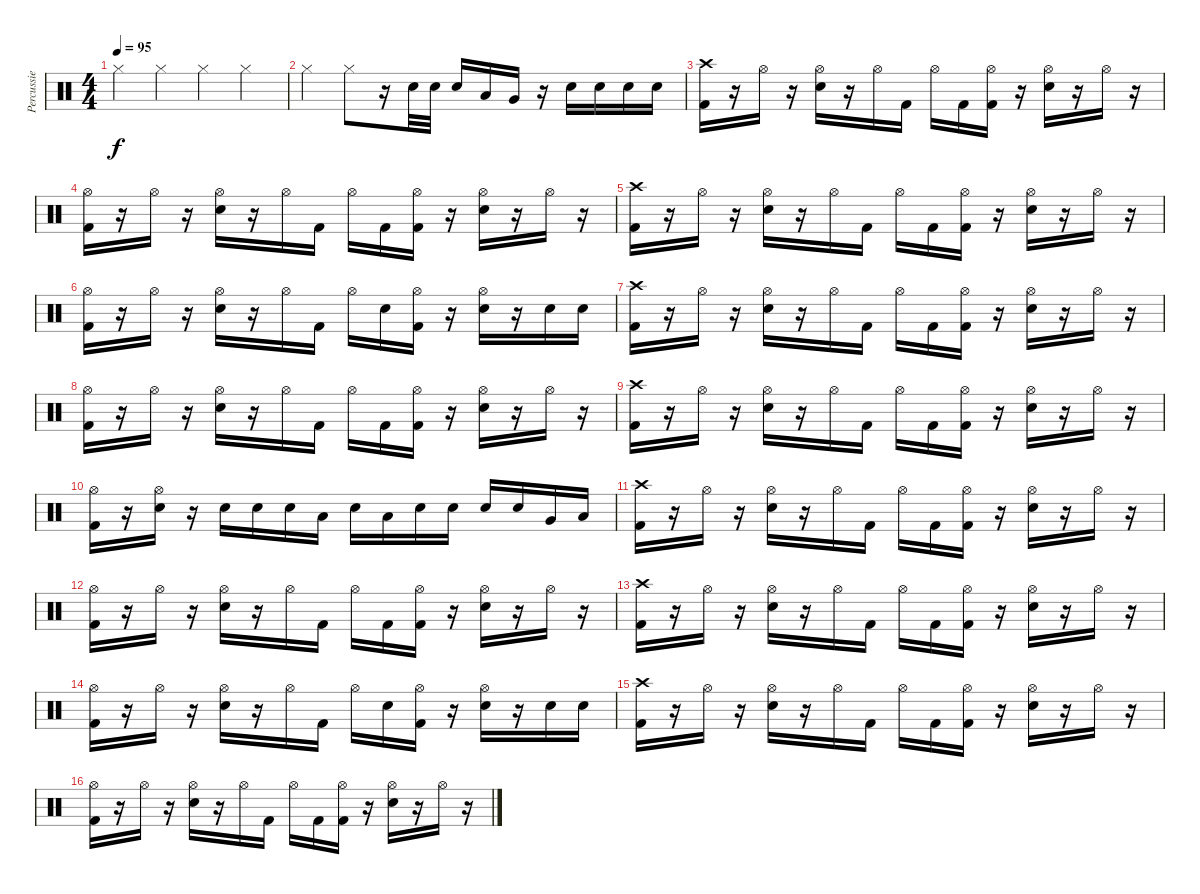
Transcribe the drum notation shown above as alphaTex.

\track ("Percussie" "Percussie") {instrument percussion}
\staff {score}
\articulation defaults
\ts (4 4)
\tempo 95
\clef neutral
\ks c "Hi-Hat (closed)".4{dy f} "Hi-Hat (closed)".4 "Hi-Hat (closed)".4 "Hi-Hat (closed)".4
|
"Hi-Hat (closed)".4 "Hi-Hat (closed)".8 r.16 "Electric Snare (hit)".32 "Electric Snare (hit)".32 "Electric Snare (hit)".16 "Low Tom (hit)".16 "Very Low Tom (hit)".16 r.16 "Electric Snare (hit)".16 "Electric Snare (hit)".16 "Electric Snare (hit)".16 "Electric Snare (hit)".16 |
("Crash high (hit)" "Kick (hit) 2").16 r.16 "Hi-Hat (open)".16 r.16 ("Hi-Hat (open)" "Electric Snare (hit)").16 r.16 "Hi-Hat (open)".16 "Kick (hit) 2".16 "Hi-Hat (open)".16 "Kick (hit) 2".16 ("Hi-Hat (open)" "Kick (hit) 2").16 r.16 ("Hi-Hat (open)" "Electric Snare (hit)").16 r.16 "Hi-Hat (open)".16 r.16 |
("Hi-Hat (open)" "Kick (hit) 2").16 r.16 "Hi-Hat (open)".16 r.16 ("Hi-Hat (open)" "Electric Snare (hit)").16 r.16 "Hi-Hat (open)".16 "Kick (hit) 2".16 "Hi-Hat (open)".16 "Kick (hit) 2".16 ("Hi-Hat (open)" "Kick (hit) 2").16 r.16 ("Hi-Hat (open)" "Electric Snare (hit)").16 r.16 "Hi-Hat (open)".16 r.16 |
("Crash high (hit)" "Kick (hit) 2").16 r.16 "Hi-Hat (open)".16 r.16 ("Hi-Hat (open)" "Electric Snare (hit)").16 r.16 "Hi-Hat (open)".16 "Kick (hit) 2".16 "Hi-Hat (open)".16 "Kick (hit) 2".16 ("Hi-Hat (open)" "Kick (hit) 2").16 r.16 ("Hi-Hat (open)" "Electric Snare (hit)").16 r.16 "Hi-Hat (open)".16 r.16 |
("Hi-Hat (open)" "Kick (hit) 2").16 r.16 "Hi-Hat (open)".16 r.16 ("Hi-Hat (open)" "Electric Snare (hit)").16 r.16 "Hi-Hat (open)".16 "Kick (hit) 2".16 "Hi-Hat (open)".16 "Electric Snare (hit)".16 ("Hi-Hat (open)" "Kick (hit) 2").16 r.16 ("Hi-Hat (open)" "Electric Snare (hit)").16 r.16 "Electric Snare (hit)".16 "Electric Snare (hit)".16 |
("Crash high (hit)" "Kick (hit) 2").16 r.16 "Hi-Hat (open)".16 r.16 ("Hi-Hat (open)" "Electric Snare (hit)").16 r.16 "Hi-Hat (open)".16 "Kick (hit) 2".16 "Hi-Hat (open)".16 "Kick (hit) 2".16 ("Hi-Hat (open)" "Kick (hit) 2").16 r.16 ("Hi-Hat (open)" "Electric Snare (hit)").16 r.16 "Hi-Hat (open)".16 r.16 |
("Hi-Hat (open)" "Kick (hit) 2").16 r.16 "Hi-Hat (open)".16 r.16 ("Hi-Hat (open)" "Electric Snare (hit)").16 r.16 "Hi-Hat (open)".16 "Kick (hit) 2".16 "Hi-Hat (open)".16 "Kick (hit) 2".16 ("Hi-Hat (open)" "Kick (hit) 2").16 r.16 ("Hi-Hat (open)" "Electric Snare (hit)").16 r.16 "Hi-Hat (open)".16 r.16 |
("Crash high (hit)" "Kick (hit) 2").16 r.16 "Hi-Hat (open)".16 r.16 ("Hi-Hat (open)" "Electric Snare (hit)").16 r.16 "Hi-Hat (open)".16 "Kick (hit) 2".16 "Hi-Hat (open)".16 "Kick (hit) 2".16 ("Hi-Hat (open)" "Kick (hit) 2").16 r.16 ("Hi-Hat (open)" "Electric Snare (hit)").16 r.16 "Hi-Hat (open)".16 r.16 |
("Hi-Hat (open)" "Kick (hit) 2").16 r.16 ("Hi-Hat (open)" "Electric Snare (hit)").16 r.16 "Electric Snare (hit)".16 "Electric Snare (hit)".16 "Electric Snare (hit)".16 "Low Tom (hit)".16 "Electric Snare (hit)".16 "Low Tom (hit)".16 "Electric Snare (hit)".16 "Electric Snare (hit)".16 "Electric Snare (hit)".16 "Electric Snare (hit)".16 "Very Low Tom (hit)".16 "Low Tom (hit)".16 |
("Crash high (hit)" "Kick (hit) 2").16 r.16 "Hi-Hat (open)".16 r.16 ("Hi-Hat (open)" "Electric Snare (hit)").16 r.16 "Hi-Hat (open)".16 "Kick (hit) 2".16 "Hi-Hat (open)".16 "Kick (hit) 2".16 ("Hi-Hat (open)" "Kick (hit) 2").16 r.16 ("Hi-Hat (open)" "Electric Snare (hit)").16 r.16 "Hi-Hat (open)".16 r.16 |
("Hi-Hat (open)" "Kick (hit) 2").16 r.16 "Hi-Hat (open)".16 r.16 ("Hi-Hat (open)" "Electric Snare (hit)").16 r.16 "Hi-Hat (open)".16 "Kick (hit) 2".16 "Hi-Hat (open)".16 "Kick (hit) 2".16 ("Hi-Hat (open)" "Kick (hit) 2").16 r.16 ("Hi-Hat (open)" "Electric Snare (hit)").16 r.16 "Hi-Hat (open)".16 r.16 |
("Crash high (hit)" "Kick (hit) 2").16 r.16 "Hi-Hat (open)".16 r.16 ("Hi-Hat (open)" "Electric Snare (hit)").16 r.16 "Hi-Hat (open)".16 "Kick (hit) 2".16 "Hi-Hat (open)".16 "Kick (hit) 2".16 ("Hi-Hat (open)" "Kick (hit) 2").16 r.16 ("Hi-Hat (open)" "Electric Snare (hit)").16 r.16 "Hi-Hat (open)".16 r.16 |
("Hi-Hat (open)" "Kick (hit) 2").16 r.16 "Hi-Hat (open)".16 r.16 ("Hi-Hat (open)" "Electric Snare (hit)").16 r.16 "Hi-Hat (open)".16 "Kick (hit) 2".16 "Hi-Hat (open)".16 "Electric Snare (hit)".16 ("Hi-Hat (open)" "Kick (hit) 2").16 r.16 ("Hi-Hat (open)" "Electric Snare (hit)").16 r.16 "Electric Snare (hit)".16 "Electric Snare (hit)".16 |
("Crash high (hit)" "Kick (hit) 2").16 r.16 "Hi-Hat (open)".16 r.16 ("Hi-Hat (open)" "Electric Snare (hit)").16 r.16 "Hi-Hat (open)".16 "Kick (hit) 2".16 "Hi-Hat (open)".16 "Kick (hit) 2".16 ("Hi-Hat (open)" "Kick (hit) 2").16 r.16 ("Hi-Hat (open)" "Electric Snare (hit)").16 r.16 "Hi-Hat (open)".16 r.16 |
("Hi-Hat (open)" "Kick (hit) 2").16 r.16 "Hi-Hat (open)".16 r.16 ("Hi-Hat (open)" "Electric Snare (hit)").16 r.16 "Hi-Hat (open)".16 "Kick (hit) 2".16 "Hi-Hat (open)".16 "Kick (hit) 2".16 ("Hi-Hat (open)" "Kick (hit) 2").16 r.16 ("Hi-Hat (open)" "Electric Snare (hit)").16 r.16 "Hi-Hat (open)".16 r.16
